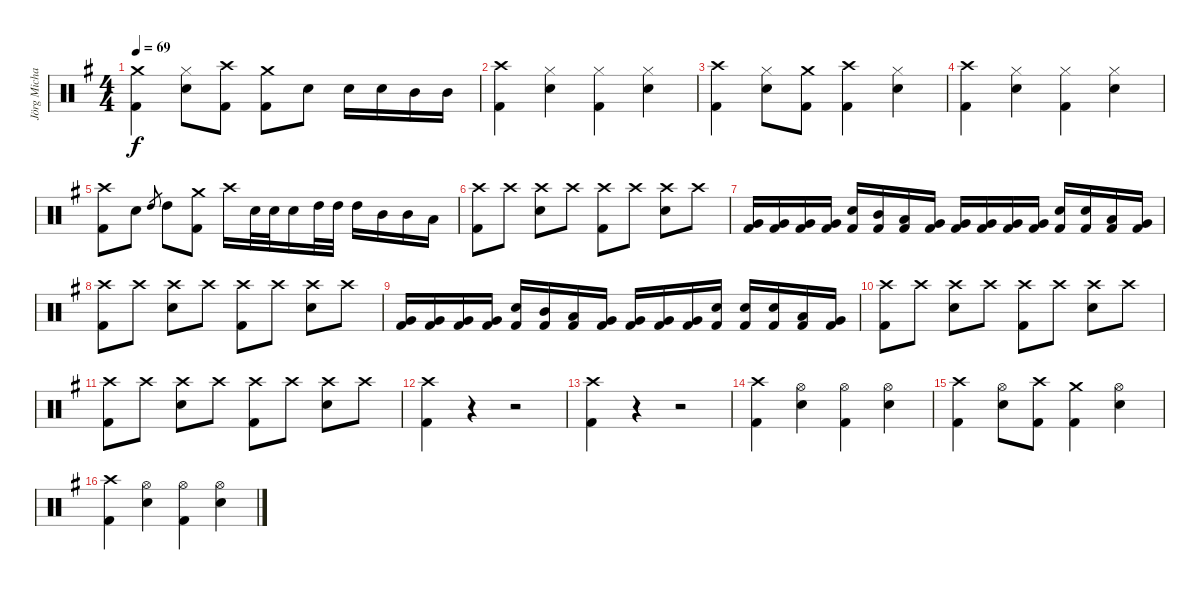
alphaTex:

\track ("Jörg Michael" "Jörg Micha") {instrument percussion}
\staff {score}
\articulation defaults
\ts (4 4)
\tempo 69
\clef neutral
\ks g
("Kick (hit) 2" "Crash medium (hit)").4{dy f} ("Electric Snare (hit)" "Hi-Hat (closed)").8 ("Crash high (hit)" "Kick (hit) 2").8 ("Crash medium (hit)" "Kick (hit) 2").8 "Electric Snare (hit)".8 "Electric Snare (hit)".16 "Electric Snare (hit)".16 "Mid Tom (hit)".16 "Mid Tom (hit)".16 |
("Crash high (hit)" "Kick (hit) 2").4 ("Hi-Hat (closed)" "Electric Snare (hit)").4 ("Hi-Hat (closed)" "Kick (hit) 2").4 ("Hi-Hat (closed)" "Electric Snare (hit)").4 |
("Crash high (hit)" "Kick (hit) 2").4 ("Hi-Hat (closed)" "Electric Snare (hit)").8 ("Crash medium (hit)" "Kick (hit) 2").8 ("Crash high (hit)" "Kick (hit) 2").4 ("Electric Snare (hit)" "Hi-Hat (closed)").4 |
("Crash high (hit)" "Kick (hit) 2").4 ("Hi-Hat (closed)" "Electric Snare (hit)").4 ("Hi-Hat (closed)" "Kick (hit) 2").4 ("Hi-Hat (closed)" "Electric Snare (hit)").4 |
("Crash high (hit)" "Kick (hit) 2").8 "Electric Snare (hit)".8 "High Tom (hit)".8{gr} "High Tom (hit)".8 ("Crash medium (hit)" "Kick (hit) 2").8 "Crash high (hit)".16 "Electric Snare (hit)".32 "Electric Snare (hit)".32 "Electric Snare (hit)".16 "High Tom (hit)".32 "High Tom (hit)".32 "High Tom (hit)".16 "Mid Tom (hit)".16 "Mid Tom (hit)".16 "Low Tom (hit)".16 |
("Crash high (hit)" "Kick (hit) 2").8 "Crash high (hit)".8 ("Crash high (hit)" "Electric Snare (hit)").8 "Crash high (hit)".8 ("Crash high (hit)" "Kick (hit) 2").8 "Crash high (hit)".8 ("Crash high (hit)" "Electric Snare (hit)").8 "Crash high (hit)".8 |
("Very Low Tom (hit)" "Kick (hit) 2").16 ("Very Low Tom (hit)" "Kick (hit) 2").16 ("Very Low Tom (hit)" "Kick (hit) 2").16 ("Very Low Tom (hit)" "Kick (hit) 2").16 ("Electric Snare (hit)" "Kick (hit) 2").16 ("Mid Tom (hit)" "Kick (hit) 2").16 ("Low Tom (hit)" "Kick (hit) 2").16 ("Very Low Tom (hit)" "Kick (hit) 2").16 ("Very Low Tom (hit)" "Kick (hit) 2").16 ("Very Low Tom (hit)" "Kick (hit) 2").16 ("Very Low Tom (hit)" "Kick (hit) 2").16 ("Very Low Tom (hit)" "Kick (hit) 2").16 ("Electric Snare (hit)" "Kick (hit) 2").16 ("Electric Snare (hit)" "Kick (hit) 2").16 ("Low Tom (hit)" "Kick (hit) 2").16 ("Very Low Tom (hit)" "Kick (hit) 2").16 |
("Crash high (hit)" "Kick (hit) 2").8 "Crash high (hit)".8 ("Crash high (hit)" "Electric Snare (hit)").8 "Crash high (hit)".8 ("Crash high (hit)" "Kick (hit) 2").8 "Crash high (hit)".8 ("Crash high (hit)" "Electric Snare (hit)").8 "Crash high (hit)".8 |
("Very Low Tom (hit)" "Kick (hit) 2").16 ("Very Low Tom (hit)" "Kick (hit) 2").16 ("Very Low Tom (hit)" "Kick (hit) 2").16 ("Very Low Tom (hit)" "Kick (hit) 2").16 ("Electric Snare (hit)" "Kick (hit) 2").16 ("Mid Tom (hit)" "Kick (hit) 2").16 ("Low Tom (hit)" "Kick (hit) 2").16 ("Very Low Tom (hit)" "Kick (hit) 2").16 ("Very Low Tom (hit)" "Kick (hit) 2").16 ("Very Low Tom (hit)" "Kick (hit) 2").16 ("Very Low Tom (hit)" "Kick (hit) 2").16 ("Electric Snare (hit)" "Kick (hit) 2").16 ("Electric Snare (hit)" "Kick (hit) 2").16 ("Electric Snare (hit)" "Kick (hit) 2").16 ("Low Tom (hit)" "Kick (hit) 2").16 ("Very Low Tom (hit)" "Kick (hit) 2").16 |
("Crash high (hit)" "Kick (hit) 2").8 "Crash high (hit)".8 ("Crash high (hit)" "Electric Snare (hit)").8 "Crash high (hit)".8 ("Crash high (hit)" "Kick (hit) 2").8 "Crash high (hit)".8 ("Crash high (hit)" "Electric Snare (hit)").8 "Crash high (hit)".8 |
("Crash high (hit)" "Kick (hit) 2").8 "Crash high (hit)".8 ("Crash high (hit)" "Electric Snare (hit)").8 "Crash high (hit)".8 ("Crash high (hit)" "Kick (hit) 2").8 "Crash high (hit)".8 ("Crash high (hit)" "Electric Snare (hit)").8 "Crash high (hit)".8 |
("Crash high (hit)" "Kick (hit) 2").4 r.4 r.2 |
("Crash high (hit)" "Kick (hit) 2").4 r.4 r.2 |
("Crash high (hit)" "Kick (hit) 2").4 ("Hi-Hat (open)" "Electric Snare (hit)").4 ("Hi-Hat (open)" "Kick (hit) 2").4 ("Hi-Hat (open)" "Electric Snare (hit)").4 |
("Crash high (hit)" "Kick (hit) 2").4 ("Electric Snare (hit)" "Hi-Hat (open)").8 ("Crash high (hit)" "Kick (hit) 2").8 ("Crash medium (hit)" "Kick (hit) 2").4 ("Hi-Hat (open)" "Electric Snare (hit)").4 |
("Crash high (hit)" "Kick (hit) 2").4 ("Hi-Hat (open)" "Electric Snare (hit)").4 ("Hi-Hat (open)" "Kick (hit) 2").4 ("Hi-Hat (open)" "Electric Snare (hit)").4
